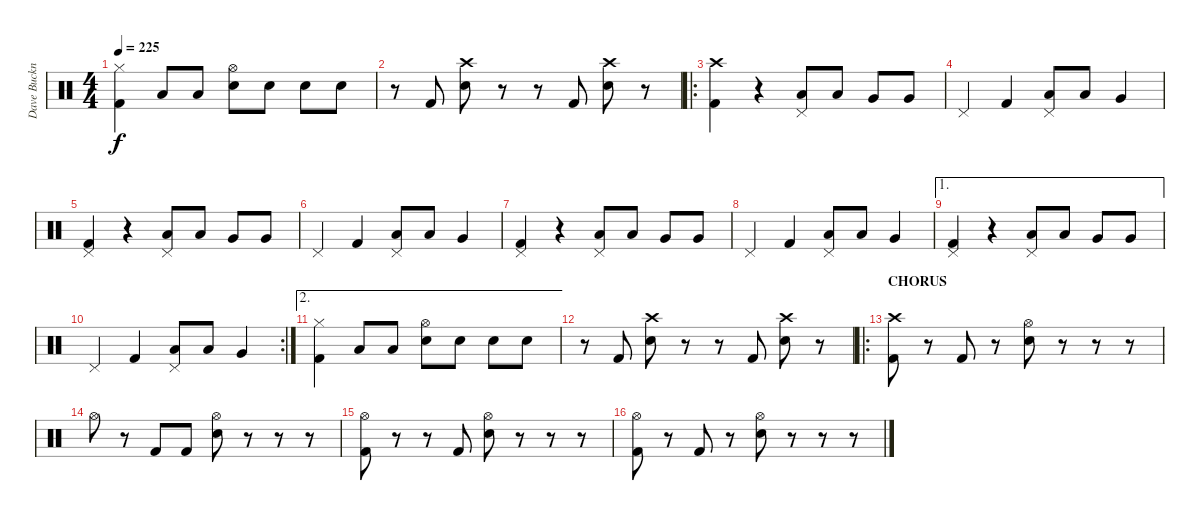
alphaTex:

\track ("Dave Buckner" "Dave Buckn") {instrument percussion}
\staff {score}
\articulation defaults
\ts (4 4)
\tempo 225
\clef neutral
\ks c
("Hi-Hat (closed)" "Kick (hit) 2").4{dy f} "Low Tom (hit)".8 "Low Tom (hit)".8 ("Hi-Hat (open)" "Electric Snare (hit)").8 "Electric Snare (hit)".8 "Electric Snare (hit)".8 "Electric Snare (hit)".8 |
r.8 "Kick (hit) 2".8 ("Crash high (hit)" "Electric Snare (hit)").8 r.8 r.8 "Kick (hit) 2".8 ("Crash high (hit)" "Electric Snare (hit)").8 r.8 |
\ro
("Crash high (hit)" "Kick (hit) 2").4 r.4 ("Pedal Hi-Hat (hit)" "Low Tom (hit)").8 "Low Tom (hit)".8 "Very Low Tom (hit)".8 "Very Low Tom (hit)".8 |
"Pedal Hi-Hat (hit)".4 "Kick (hit) 2".4 ("Pedal Hi-Hat (hit)" "Low Tom (hit)").8 "Low Tom (hit)".8 "Very Low Tom (hit)".4 |
("Pedal Hi-Hat (hit)" "Kick (hit) 2").4 r.4 ("Pedal Hi-Hat (hit)" "Low Tom (hit)").8 "Low Tom (hit)".8 "Very Low Tom (hit)".8 "Very Low Tom (hit)".8 |
"Pedal Hi-Hat (hit)".4 "Kick (hit) 2".4 ("Pedal Hi-Hat (hit)" "Low Tom (hit)").8 "Low Tom (hit)".8 "Very Low Tom (hit)".4 |
("Pedal Hi-Hat (hit)" "Kick (hit) 2").4 r.4 ("Pedal Hi-Hat (hit)" "Low Tom (hit)").8 "Low Tom (hit)".8 "Very Low Tom (hit)".8 "Very Low Tom (hit)".8 |
"Pedal Hi-Hat (hit)".4 "Kick (hit) 2".4 ("Pedal Hi-Hat (hit)" "Low Tom (hit)").8 "Low Tom (hit)".8 "Very Low Tom (hit)".4 |
\ae 1
("Pedal Hi-Hat (hit)" "Kick (hit) 2").4 r.4 ("Pedal Hi-Hat (hit)" "Low Tom (hit)").8 "Low Tom (hit)".8 "Very Low Tom (hit)".8 "Very Low Tom (hit)".8 |
\rc 2 "Pedal Hi-Hat (hit)".4 "Kick (hit) 2".4
("Pedal Hi-Hat (hit)" "Low Tom (hit)").8 "Low Tom (hit)".8 "Very Low Tom (hit)".4 |
\ae 2
("Hi-Hat (closed)" "Kick (hit) 2").4 "Low Tom (hit)".8 "Low Tom (hit)".8 ("Hi-Hat (open)" "Electric Snare (hit)").8 "Electric Snare (hit)".8 "Electric Snare (hit)".8 "Electric Snare (hit)".8 |
r.8 "Kick (hit) 2".8 ("Crash high (hit)" "Electric Snare (hit)").8 r.8 r.8 "Kick (hit) 2".8 ("Crash high (hit)" "Electric Snare (hit)").8 r.8 |
\ro
\section ("" "CHORUS")
("Crash high (hit)" "Kick (hit) 2").8 r.8 "Kick (hit) 2".8 r.8 ("Hi-Hat (open)" "Electric Snare (hit)").8 r.8 r.8 r.8 |
"Hi-Hat (open)".8 r.8 "Kick (hit) 2".8 "Kick (hit) 2".8 ("Hi-Hat (open)" "Electric Snare (hit)").8 r.8 r.8 r.8 |
("Hi-Hat (open)" "Kick (hit) 2").8 r.8 r.8 "Kick (hit) 2".8 ("Hi-Hat (open)" "Electric Snare (hit)").8 r.8 r.8 r.8 |
("Hi-Hat (open)" "Kick (hit) 2").8 r.8 "Kick (hit) 2".8 r.8 ("Hi-Hat (open)" "Electric Snare (hit)").8 r.8 r.8 r.8
